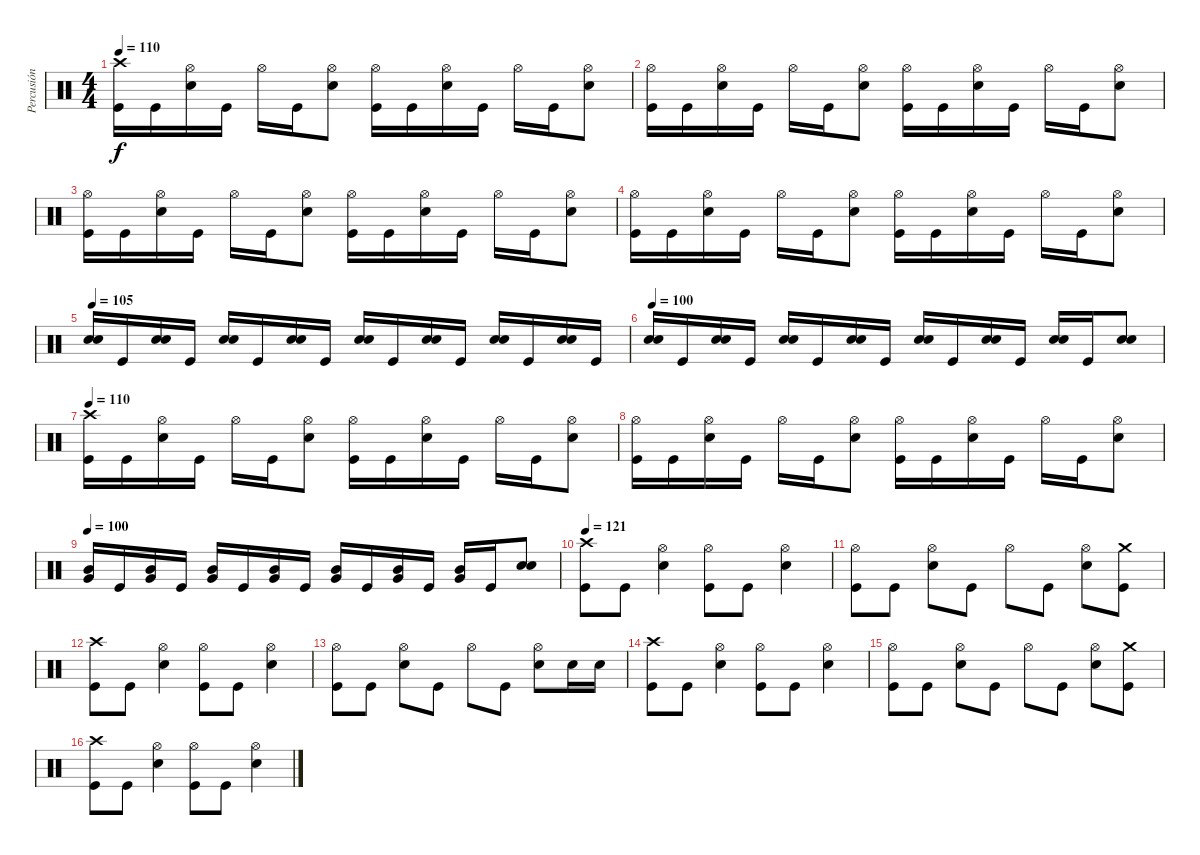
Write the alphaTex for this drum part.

\track ("Percusión" "Percusión") {instrument percussion}
\staff {score}
\articulation defaults
\ts (4 4)
\tempo 110
\clef neutral
\ks c
("Crash high (hit)" "Kick (hit)").16{dy f} "Kick (hit)".16 ("Hi-Hat (open)" "Snare (hit) 2").16 "Kick (hit)".16 "Hi-Hat (open)".16 "Kick (hit)".16 ("Hi-Hat (open)" "Snare (hit) 2").8 ("Hi-Hat (open)" "Kick (hit)").16 "Kick (hit)".16 ("Hi-Hat (open)" "Snare (hit) 2").16 "Kick (hit)".16 "Hi-Hat (open)".16 "Kick (hit)".16 ("Hi-Hat (open)" "Snare (hit) 2").8 |
("Hi-Hat (open)" "Kick (hit)").16 "Kick (hit)".16 ("Hi-Hat (open)" "Snare (hit) 2").16 "Kick (hit)".16 "Hi-Hat (open)".16 "Kick (hit)".16 ("Hi-Hat (open)" "Snare (hit) 2").8 ("Hi-Hat (open)" "Kick (hit)").16 "Kick (hit)".16 ("Hi-Hat (open)" "Snare (hit) 2").16 "Kick (hit)".16 "Hi-Hat (open)".16 "Kick (hit)".16 ("Hi-Hat (open)" "Snare (hit) 2").8 |
("Hi-Hat (open)" "Kick (hit)").16 "Kick (hit)".16 ("Hi-Hat (open)" "Snare (hit) 2").16 "Kick (hit)".16 "Hi-Hat (open)".16 "Kick (hit)".16 ("Hi-Hat (open)" "Snare (hit) 2").8 ("Hi-Hat (open)" "Kick (hit)").16 "Kick (hit)".16 ("Hi-Hat (open)" "Snare (hit) 2").16 "Kick (hit)".16 "Hi-Hat (open)".16 "Kick (hit)".16 ("Hi-Hat (open)" "Snare (hit) 2").8 |
("Hi-Hat (open)" "Kick (hit)").16 "Kick (hit)".16 ("Hi-Hat (open)" "Snare (hit) 2").16 "Kick (hit)".16 "Hi-Hat (open)".16 "Kick (hit)".16 ("Hi-Hat (open)" "Snare (hit) 2").8 ("Hi-Hat (open)" "Kick (hit)").16 "Kick (hit)".16 ("Hi-Hat (open)" "Snare (hit) 2").16 "Kick (hit)".16 "Hi-Hat (open)".16 "Kick (hit)".16 ("Hi-Hat (open)" "Snare (hit) 2").8 |
\tempo 105
("Snare (hit) 2" "Snare (hit) 2").16 "Kick (hit)".16 ("Snare (hit) 2" "Snare (hit) 2").16 "Kick (hit)".16 ("Snare (hit) 2" "Snare (hit) 2").16 "Kick (hit)".16 ("Snare (hit) 2" "Snare (hit) 2").16 "Kick (hit)".16 ("Snare (hit) 2" "Snare (hit) 2").16 "Kick (hit)".16 ("Snare (hit) 2" "Snare (hit) 2").16 "Kick (hit)".16 ("Snare (hit) 2" "Snare (hit) 2").16 "Kick (hit)".16 ("Snare (hit) 2" "Snare (hit) 2").16 "Kick (hit)".16 |
\tempo 100
("Snare (hit) 2" "Snare (hit) 2").16 "Kick (hit)".16 ("Snare (hit) 2" "Snare (hit) 2").16 "Kick (hit)".16 ("Snare (hit) 2" "Snare (hit) 2").16 "Kick (hit)".16 ("Snare (hit) 2" "Snare (hit) 2").16 "Kick (hit)".16 ("Snare (hit) 2" "Snare (hit) 2").16 "Kick (hit)".16 ("Snare (hit) 2" "Snare (hit) 2").16 "Kick (hit)".16 ("Snare (hit) 2" "Snare (hit) 2").16 "Kick (hit)".16 ("Snare (hit) 2" "Snare (hit) 2").8 |
\tempo 110
("Crash high (hit)" "Kick (hit)").16 "Kick (hit)".16 ("Hi-Hat (open)" "Snare (hit) 2").16 "Kick (hit)".16 "Hi-Hat (open)".16 "Kick (hit)".16 ("Hi-Hat (open)" "Snare (hit) 2").8 ("Hi-Hat (open)" "Kick (hit)").16 "Kick (hit)".16 ("Hi-Hat (open)" "Snare (hit) 2").16 "Kick (hit)".16 "Hi-Hat (open)".16 "Kick (hit)".16 ("Hi-Hat (open)" "Snare (hit) 2").8 |
("Hi-Hat (open)" "Kick (hit)").16 "Kick (hit)".16 ("Hi-Hat (open)" "Snare (hit) 2").16 "Kick (hit)".16 "Hi-Hat (open)".16 "Kick (hit)".16 ("Hi-Hat (open)" "Snare (hit) 2").8 ("Hi-Hat (open)" "Kick (hit)").16 "Kick (hit)".16 ("Hi-Hat (open)" "Snare (hit) 2").16 "Kick (hit)".16 "Hi-Hat (open)".16 "Kick (hit)".16 ("Hi-Hat (open)" "Snare (hit) 2").8 |
\tempo 100
("Very Low Tom (hit)" "Mid Tom (hit)").16 "Kick (hit)".16 ("Very Low Tom (hit)" "Mid Tom (hit)").16 "Kick (hit)".16 ("Very Low Tom (hit)" "Mid Tom (hit)").16 "Kick (hit)".16 ("Very Low Tom (hit)" "Mid Tom (hit)").16 "Kick (hit)".16 ("Very Low Tom (hit)" "Mid Tom (hit)").16 "Kick (hit)".16 ("Very Low Tom (hit)" "Mid Tom (hit)").16 "Kick (hit)".16 ("Very Low Tom (hit)" "Mid Tom (hit)").16 "Kick (hit)".16 ("Snare (hit) 2" "Snare (hit) 2").8 |
\tempo 121
("Crash high (hit)" "Kick (hit)").8 "Kick (hit)".8 ("Hi-Hat (open)" "Snare (hit) 2").4 ("Hi-Hat (open)" "Kick (hit)").8 "Kick (hit)".8 ("Hi-Hat (open)" "Snare (hit) 2").4 |
("Hi-Hat (open)" "Kick (hit)").8 "Kick (hit)".8 ("Hi-Hat (open)" "Snare (hit) 2").8 "Kick (hit)".8 "Hi-Hat (open)".8 "Kick (hit)".8 ("Hi-Hat (open)" "Snare (hit) 2").8 ("Crash medium (hit)" "Kick (hit)").8 |
("Crash high (hit)" "Kick (hit)").8 "Kick (hit)".8 ("Hi-Hat (open)" "Snare (hit) 2").4 ("Hi-Hat (open)" "Kick (hit)").8 "Kick (hit)".8 ("Hi-Hat (open)" "Snare (hit) 2").4 |
("Hi-Hat (open)" "Kick (hit)").8 "Kick (hit)".8 ("Hi-Hat (open)" "Snare (hit) 2").8 "Kick (hit)".8 "Hi-Hat (open)".8 "Kick (hit)".8 ("Hi-Hat (open)" "Snare (hit) 2").8 "Snare (hit) 2".16 "Snare (hit) 2".16 |
("Crash high (hit)" "Kick (hit)").8 "Kick (hit)".8 ("Hi-Hat (open)" "Snare (hit) 2").4 ("Hi-Hat (open)" "Kick (hit)").8 "Kick (hit)".8 ("Hi-Hat (open)" "Snare (hit) 2").4 |
("Hi-Hat (open)" "Kick (hit)").8 "Kick (hit)".8 ("Hi-Hat (open)" "Snare (hit) 2").8 "Kick (hit)".8 "Hi-Hat (open)".8 "Kick (hit)".8 ("Hi-Hat (open)" "Snare (hit) 2").8 ("Crash medium (hit)" "Kick (hit)").8 |
("Crash high (hit)" "Kick (hit)").8 "Kick (hit)".8 ("Hi-Hat (open)" "Snare (hit) 2").4 ("Hi-Hat (open)" "Kick (hit)").8 "Kick (hit)".8 ("Hi-Hat (open)" "Snare (hit) 2").4
